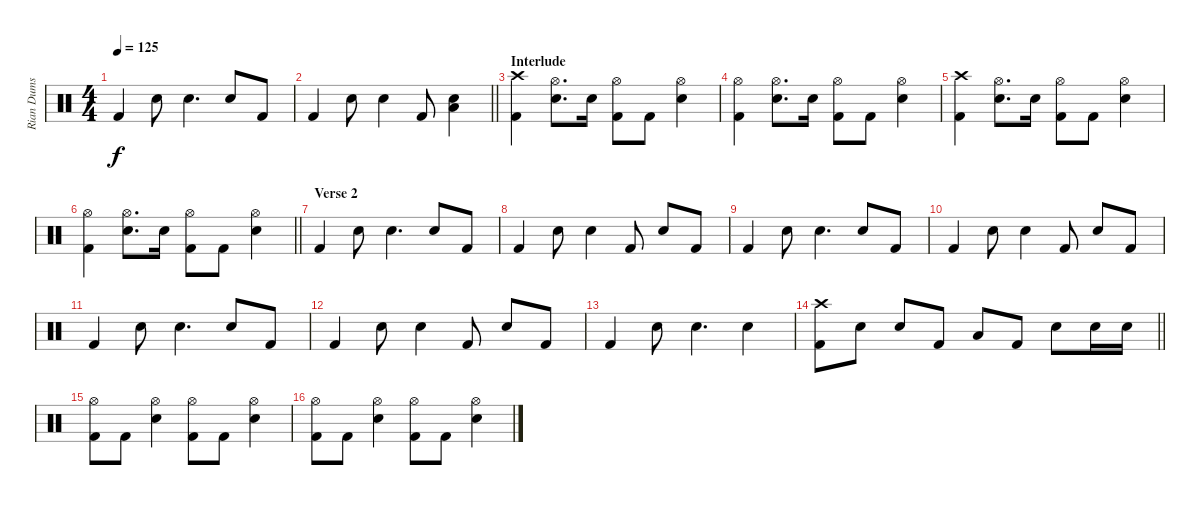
\track ("Rian Dums" "Rian Dums") {instrument percussion}
\staff {score}
\articulation defaults
\ts (4 4)
\tempo 125
\clef neutral
\ks c "Kick (hit) 2".4{dy f} "Snare (hit) 2".8 "Snare (hit) 2".4{d} "Snare (hit) 2".8 "Kick (hit) 2".8
|
\barLineRight lightlight "Kick (hit) 2".4 "Snare (hit) 2".8 "Snare (hit) 2".4 "Kick (hit) 2".8
("Low Floor Tom (hit)" "Snare (hit) 2").4 |
\section ("" "Interlude")
("Crash high (hit)" "Kick (hit) 2").4 ("Hi-Hat (open)" "Snare (hit) 2").8{d} "Snare (hit) 2".16 ("Hi-Hat (open)" "Kick (hit) 2").8 "Kick (hit) 2".8 ("Hi-Hat (open)" "Snare (hit) 2").4 |
("Hi-Hat (open)" "Kick (hit) 2").4 ("Hi-Hat (open)" "Snare (hit) 2").8{d} "Snare (hit) 2".16 ("Hi-Hat (open)" "Kick (hit) 2").8 "Kick (hit) 2".8 ("Hi-Hat (open)" "Snare (hit) 2").4 |
("Crash high (hit)" "Kick (hit) 2").4 ("Hi-Hat (open)" "Snare (hit) 2").8{d} "Snare (hit) 2".16 ("Hi-Hat (open)" "Kick (hit) 2").8 "Kick (hit) 2".8 ("Hi-Hat (open)" "Snare (hit) 2").4 |
\barLineRight lightlight
("Hi-Hat (open)" "Kick (hit) 2").4 ("Hi-Hat (open)" "Snare (hit) 2").8{d} "Snare (hit) 2".16 ("Hi-Hat (open)" "Kick (hit) 2").8 "Kick (hit) 2".8 ("Hi-Hat (open)" "Snare (hit) 2").4 |
\section ("" "Verse 2")
"Kick (hit) 2".4 "Snare (hit) 2".8 "Snare (hit) 2".4{d} "Snare (hit) 2".8 "Kick (hit) 2".8 |
"Kick (hit) 2".4 "Snare (hit) 2".8 "Snare (hit) 2".4 "Kick (hit) 2".8 "Snare (hit) 2".8 "Kick (hit) 2".8 |
"Kick (hit) 2".4 "Snare (hit) 2".8 "Snare (hit) 2".4{d} "Snare (hit) 2".8 "Kick (hit) 2".8 |
"Kick (hit) 2".4 "Snare (hit) 2".8 "Snare (hit) 2".4 "Kick (hit) 2".8 "Snare (hit) 2".8 "Kick (hit) 2".8 |
"Kick (hit) 2".4 "Snare (hit) 2".8 "Snare (hit) 2".4{d} "Snare (hit) 2".8 "Kick (hit) 2".8 |
"Kick (hit) 2".4 "Snare (hit) 2".8 "Snare (hit) 2".4 "Kick (hit) 2".8 "Snare (hit) 2".8 "Kick (hit) 2".8 |
"Kick (hit) 2".4 "Snare (hit) 2".8 "Snare (hit) 2".4{d} "Snare (hit) 2".4 |
\barLineRight lightlight
("Crash high (hit)" "Kick (hit) 2").8 "Snare (hit) 2".8 "Snare (hit) 2".8 "Kick (hit) 2".8 "Low Tom (hit)".8 "Kick (hit) 2".8 "Snare (hit) 2".8 "Snare (hit) 2".16 "Snare (hit) 2".16 |
("Hi-Hat (open)" "Kick (hit) 2").8 "Kick (hit) 2".8 ("Hi-Hat (open)" "Snare (hit) 2").4 ("Hi-Hat (open)" "Kick (hit) 2").8 "Kick (hit) 2".8 ("Hi-Hat (open)" "Snare (hit) 2").4 |
("Hi-Hat (open)" "Kick (hit) 2").8 "Kick (hit) 2".8 ("Hi-Hat (open)" "Snare (hit) 2").4 ("Hi-Hat (open)" "Kick (hit) 2").8 "Kick (hit) 2".8 ("Hi-Hat (open)" "Snare (hit) 2").4
